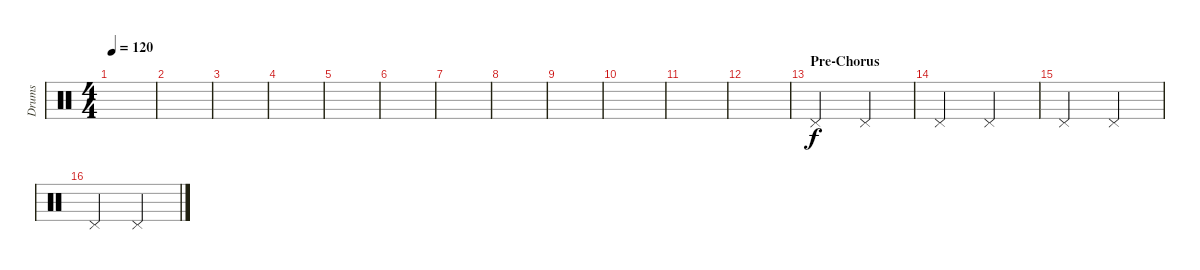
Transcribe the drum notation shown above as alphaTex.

\track ("Drums" "Drums") {instrument percussion}
\staff {score}
\articulation defaults
\ts (4 4)
\tempo 120
\clef neutral
\ks c
|
|
|
|
|
|
|
|
|
|
|
|
\section ("" "Pre-Chorus")
"Pedal Hi-Hat (hit)".2 "Pedal Hi-Hat (hit)".2 |
"Pedal Hi-Hat (hit)".2 "Pedal Hi-Hat (hit)".2 |
"Pedal Hi-Hat (hit)".2 "Pedal Hi-Hat (hit)".2 |
"Pedal Hi-Hat (hit)".2 "Pedal Hi-Hat (hit)".2
